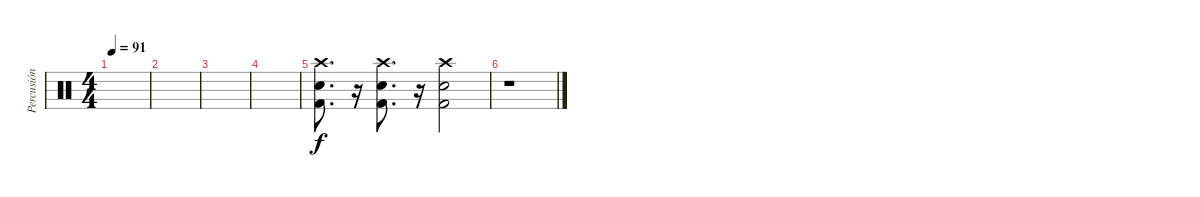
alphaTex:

\track ("Percusión" "Percusión") {instrument percussion}
\staff {score}
\articulation defaults
\ts (4 4)
\tempo 91
\clef neutral
\ks c
|
|
|
|
("Crash high (hit)" "Snare (hit) 2" "Kick (hit) 2").8{d} r.16 ("Crash high (hit)" "Snare (hit) 2" "Kick (hit) 2").8{d} r.16 ("Crash high (hit)" "Snare (hit) 2" "Kick (hit) 2").2 |
r.1
